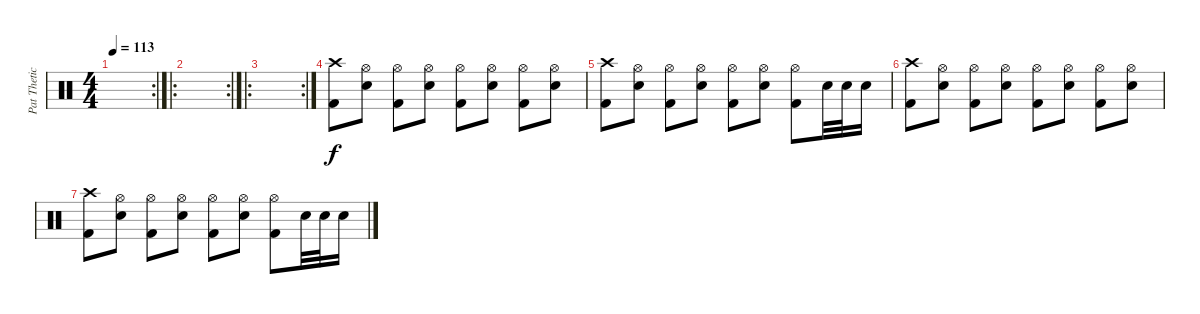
\track ("Pat Thetic" "Pat Thetic") {instrument percussion}
\staff {score}
\articulation defaults
\rc 2
\ts (4 4)
\tempo 113
\clef neutral
\ks c
|
\ro
\rc 2
|
\ro
\rc 2
|
("Crash high (hit)" "Kick (hit) 2").8 ("Snare (hit) 2" "Hi-Hat (open)").8 ("Kick (hit) 2" "Hi-Hat (open)").8 ("Snare (hit) 2" "Hi-Hat (open)").8 ("Kick (hit) 2" "Hi-Hat (open)").8 ("Snare (hit) 2" "Hi-Hat (open)").8 ("Kick (hit) 2" "Hi-Hat (open)").8 ("Snare (hit) 2" "Hi-Hat (open)").8 |
("Crash high (hit)" "Kick (hit) 2").8 ("Snare (hit) 2" "Hi-Hat (open)").8 ("Kick (hit) 2" "Hi-Hat (open)").8 ("Snare (hit) 2" "Hi-Hat (open)").8 ("Kick (hit) 2" "Hi-Hat (open)").8 ("Snare (hit) 2" "Hi-Hat (open)").8 ("Kick (hit) 2" "Hi-Hat (open)").8 "Snare (hit) 2".32 "Snare (hit) 2".32 "Snare (hit) 2".16 |
("Crash high (hit)" "Kick (hit) 2").8 ("Snare (hit) 2" "Hi-Hat (open)").8 ("Kick (hit) 2" "Hi-Hat (open)").8 ("Snare (hit) 2" "Hi-Hat (open)").8 ("Kick (hit) 2" "Hi-Hat (open)").8 ("Snare (hit) 2" "Hi-Hat (open)").8 ("Kick (hit) 2" "Hi-Hat (open)").8 ("Snare (hit) 2" "Hi-Hat (open)").8 |
("Crash high (hit)" "Kick (hit) 2").8 ("Snare (hit) 2" "Hi-Hat (open)").8 ("Kick (hit) 2" "Hi-Hat (open)").8 ("Snare (hit) 2" "Hi-Hat (open)").8 ("Kick (hit) 2" "Hi-Hat (open)").8 ("Snare (hit) 2" "Hi-Hat (open)").8 ("Kick (hit) 2" "Hi-Hat (open)").8 "Snare (hit) 2".32 "Snare (hit) 2".32 "Snare (hit) 2".16
